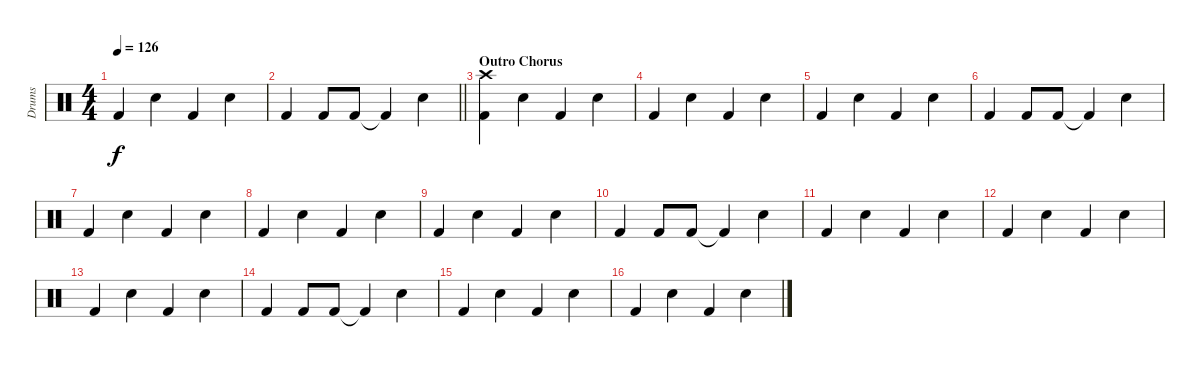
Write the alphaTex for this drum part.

\track ("Drums" "Drums") {instrument percussion}
\staff {score}
\articulation defaults
\ts (4 4)
\tempo 126
\clef neutral
\ks c "Kick (hit) 2".4{dy f} "Electric Snare (hit)".4 "Kick (hit) 2".4 "Electric Snare (hit)".4
|
\barLineRight lightlight "Kick (hit) 2".4 "Kick (hit) 2".8 "Kick (hit) 2".8 "Kick (hit) 2"{t}.4 "Electric Snare (hit)".4
|
\section ("" "Outro Chorus")
("Crash high (hit)" "Kick (hit) 2").4 "Electric Snare (hit)".4 "Kick (hit) 2".4 "Electric Snare (hit)".4 |
"Kick (hit) 2".4 "Electric Snare (hit)".4 "Kick (hit) 2".4 "Electric Snare (hit)".4 |
"Kick (hit) 2".4 "Electric Snare (hit)".4 "Kick (hit) 2".4 "Electric Snare (hit)".4 |
"Kick (hit) 2".4 "Kick (hit) 2".8 "Kick (hit) 2".8 "Kick (hit) 2"{t}.4 "Electric Snare (hit)".4 |
"Kick (hit) 2".4 "Electric Snare (hit)".4 "Kick (hit) 2".4 "Electric Snare (hit)".4 |
"Kick (hit) 2".4 "Electric Snare (hit)".4 "Kick (hit) 2".4 "Electric Snare (hit)".4 |
"Kick (hit) 2".4 "Electric Snare (hit)".4 "Kick (hit) 2".4 "Electric Snare (hit)".4 |
"Kick (hit) 2".4 "Kick (hit) 2".8 "Kick (hit) 2".8 "Kick (hit) 2"{t}.4 "Electric Snare (hit)".4 |
"Kick (hit) 2".4 "Electric Snare (hit)".4 "Kick (hit) 2".4 "Electric Snare (hit)".4 |
"Kick (hit) 2".4 "Electric Snare (hit)".4 "Kick (hit) 2".4 "Electric Snare (hit)".4 |
"Kick (hit) 2".4 "Electric Snare (hit)".4 "Kick (hit) 2".4 "Electric Snare (hit)".4 |
"Kick (hit) 2".4 "Kick (hit) 2".8 "Kick (hit) 2".8 "Kick (hit) 2"{t}.4 "Electric Snare (hit)".4 |
"Kick (hit) 2".4 "Electric Snare (hit)".4 "Kick (hit) 2".4 "Electric Snare (hit)".4 |
"Kick (hit) 2".4 "Electric Snare (hit)".4 "Kick (hit) 2".4 "Electric Snare (hit)".4
